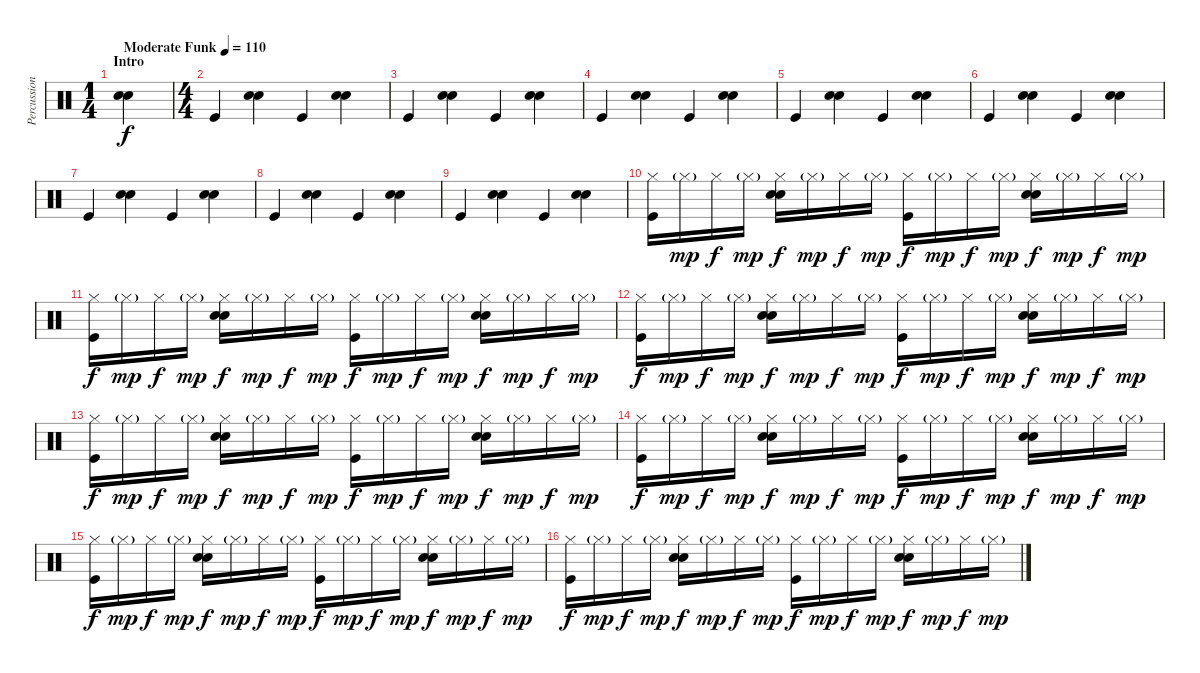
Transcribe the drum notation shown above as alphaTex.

\track ("Percussion" "Percussion") {instrument percussion}
\staff {score}
\articulation defaults
\ts (1 4)
\section ("" "Intro")
\tempo (110 "Moderate Funk")
\clef neutral
\ks c
("Hand Clap (hit)" "Snare (hit) 2").4{dy f} |
\ts (4 4)
"Kick (hit)".4 ("Hand Clap (hit)" "Snare (hit) 2").4 "Kick (hit)".4 ("Hand Clap (hit)" "Snare (hit) 2").4 |
"Kick (hit)".4 ("Hand Clap (hit)" "Snare (hit) 2").4 "Kick (hit)".4 ("Hand Clap (hit)" "Snare (hit) 2").4 |
"Kick (hit)".4 ("Hand Clap (hit)" "Snare (hit) 2").4 "Kick (hit)".4 ("Hand Clap (hit)" "Snare (hit) 2").4 |
"Kick (hit)".4 ("Hand Clap (hit)" "Snare (hit) 2").4 "Kick (hit)".4 ("Hand Clap (hit)" "Snare (hit) 2").4 |
"Kick (hit)".4 ("Hand Clap (hit)" "Snare (hit) 2").4 "Kick (hit)".4 ("Hand Clap (hit)" "Snare (hit) 2").4 |
"Kick (hit)".4 ("Hand Clap (hit)" "Snare (hit) 2").4 "Kick (hit)".4 ("Hand Clap (hit)" "Snare (hit) 2").4 |
"Kick (hit)".4 ("Hand Clap (hit)" "Snare (hit) 2").4 "Kick (hit)".4 ("Hand Clap (hit)" "Snare (hit) 2").4 |
"Kick (hit)".4 ("Hand Clap (hit)" "Snare (hit) 2").4 "Kick (hit)".4 ("Hand Clap (hit)" "Snare (hit) 2").4 |
("Hi-Hat (closed)" "Kick (hit)").16 "Hi-Hat (closed)"{g}.16{dy mp} "Hi-Hat (closed)".16{dy f} "Hi-Hat (closed)"{g}.16{dy mp} ("Hi-Hat (closed)" "Hand Clap (hit)" "Snare (hit) 2").16{dy f} "Hi-Hat (closed)"{g}.16{dy mp} "Hi-Hat (closed)".16{dy f} "Hi-Hat (closed)"{g}.16{dy mp} ("Hi-Hat (closed)" "Kick (hit)").16{dy f} "Hi-Hat (closed)"{g}.16{dy mp} "Hi-Hat (closed)".16{dy f} "Hi-Hat (closed)"{g}.16{dy mp} ("Hi-Hat (closed)" "Hand Clap (hit)" "Snare (hit) 2").16{dy f} "Hi-Hat (closed)"{g}.16{dy mp} "Hi-Hat (closed)".16{dy f} "Hi-Hat (closed)"{g}.16{dy mp} |
("Hi-Hat (closed)" "Kick (hit)").16{dy f} "Hi-Hat (closed)"{g}.16{dy mp} "Hi-Hat (closed)".16{dy f} "Hi-Hat (closed)"{g}.16{dy mp} ("Hi-Hat (closed)" "Hand Clap (hit)" "Snare (hit) 2").16{dy f} "Hi-Hat (closed)"{g}.16{dy mp} "Hi-Hat (closed)".16{dy f} "Hi-Hat (closed)"{g}.16{dy mp} ("Hi-Hat (closed)" "Kick (hit)").16{dy f} "Hi-Hat (closed)"{g}.16{dy mp} "Hi-Hat (closed)".16{dy f} "Hi-Hat (closed)"{g}.16{dy mp} ("Hi-Hat (closed)" "Hand Clap (hit)" "Snare (hit) 2").16{dy f} "Hi-Hat (closed)"{g}.16{dy mp} "Hi-Hat (closed)".16{dy f} "Hi-Hat (closed)"{g}.16{dy mp} |
("Hi-Hat (closed)" "Kick (hit)").16{dy f} "Hi-Hat (closed)"{g}.16{dy mp} "Hi-Hat (closed)".16{dy f} "Hi-Hat (closed)"{g}.16{dy mp} ("Hi-Hat (closed)" "Hand Clap (hit)" "Snare (hit) 2").16{dy f} "Hi-Hat (closed)"{g}.16{dy mp} "Hi-Hat (closed)".16{dy f} "Hi-Hat (closed)"{g}.16{dy mp} ("Hi-Hat (closed)" "Kick (hit)").16{dy f} "Hi-Hat (closed)"{g}.16{dy mp} "Hi-Hat (closed)".16{dy f} "Hi-Hat (closed)"{g}.16{dy mp} ("Hi-Hat (closed)" "Hand Clap (hit)" "Snare (hit) 2").16{dy f} "Hi-Hat (closed)"{g}.16{dy mp} "Hi-Hat (closed)".16{dy f} "Hi-Hat (closed)"{g}.16{dy mp} |
("Hi-Hat (closed)" "Kick (hit)").16{dy f} "Hi-Hat (closed)"{g}.16{dy mp} "Hi-Hat (closed)".16{dy f} "Hi-Hat (closed)"{g}.16{dy mp} ("Hi-Hat (closed)" "Hand Clap (hit)" "Snare (hit) 2").16{dy f} "Hi-Hat (closed)"{g}.16{dy mp} "Hi-Hat (closed)".16{dy f} "Hi-Hat (closed)"{g}.16{dy mp} ("Hi-Hat (closed)" "Kick (hit)").16{dy f} "Hi-Hat (closed)"{g}.16{dy mp} "Hi-Hat (closed)".16{dy f} "Hi-Hat (closed)"{g}.16{dy mp} ("Hi-Hat (closed)" "Hand Clap (hit)" "Snare (hit) 2").16{dy f} "Hi-Hat (closed)"{g}.16{dy mp} "Hi-Hat (closed)".16{dy f} "Hi-Hat (closed)"{g}.16{dy mp} |
("Hi-Hat (closed)" "Kick (hit)").16{dy f} "Hi-Hat (closed)"{g}.16{dy mp} "Hi-Hat (closed)".16{dy f} "Hi-Hat (closed)"{g}.16{dy mp} ("Hi-Hat (closed)" "Hand Clap (hit)" "Snare (hit) 2").16{dy f} "Hi-Hat (closed)"{g}.16{dy mp} "Hi-Hat (closed)".16{dy f} "Hi-Hat (closed)"{g}.16{dy mp} ("Hi-Hat (closed)" "Kick (hit)").16{dy f} "Hi-Hat (closed)"{g}.16{dy mp} "Hi-Hat (closed)".16{dy f} "Hi-Hat (closed)"{g}.16{dy mp} ("Hi-Hat (closed)" "Hand Clap (hit)" "Snare (hit) 2").16{dy f} "Hi-Hat (closed)"{g}.16{dy mp} "Hi-Hat (closed)".16{dy f} "Hi-Hat (closed)"{g}.16{dy mp} |
("Hi-Hat (closed)" "Kick (hit)").16{dy f} "Hi-Hat (closed)"{g}.16{dy mp} "Hi-Hat (closed)".16{dy f} "Hi-Hat (closed)"{g}.16{dy mp} ("Hi-Hat (closed)" "Hand Clap (hit)" "Snare (hit) 2").16{dy f} "Hi-Hat (closed)"{g}.16{dy mp} "Hi-Hat (closed)".16{dy f} "Hi-Hat (closed)"{g}.16{dy mp} ("Hi-Hat (closed)" "Kick (hit)").16{dy f} "Hi-Hat (closed)"{g}.16{dy mp} "Hi-Hat (closed)".16{dy f} "Hi-Hat (closed)"{g}.16{dy mp} ("Hi-Hat (closed)" "Hand Clap (hit)" "Snare (hit) 2").16{dy f} "Hi-Hat (closed)"{g}.16{dy mp} "Hi-Hat (closed)".16{dy f} "Hi-Hat (closed)"{g}.16{dy mp} |
("Hi-Hat (closed)" "Kick (hit)").16{dy f} "Hi-Hat (closed)"{g}.16{dy mp} "Hi-Hat (closed)".16{dy f} "Hi-Hat (closed)"{g}.16{dy mp} ("Hi-Hat (closed)" "Hand Clap (hit)" "Snare (hit) 2").16{dy f} "Hi-Hat (closed)"{g}.16{dy mp} "Hi-Hat (closed)".16{dy f} "Hi-Hat (closed)"{g}.16{dy mp} ("Hi-Hat (closed)" "Kick (hit)").16{dy f} "Hi-Hat (closed)"{g}.16{dy mp} "Hi-Hat (closed)".16{dy f} "Hi-Hat (closed)"{g}.16{dy mp} ("Hi-Hat (closed)" "Hand Clap (hit)" "Snare (hit) 2").16{dy f} "Hi-Hat (closed)"{g}.16{dy mp} "Hi-Hat (closed)".16{dy f} "Hi-Hat (closed)"{g}.16{dy mp}
